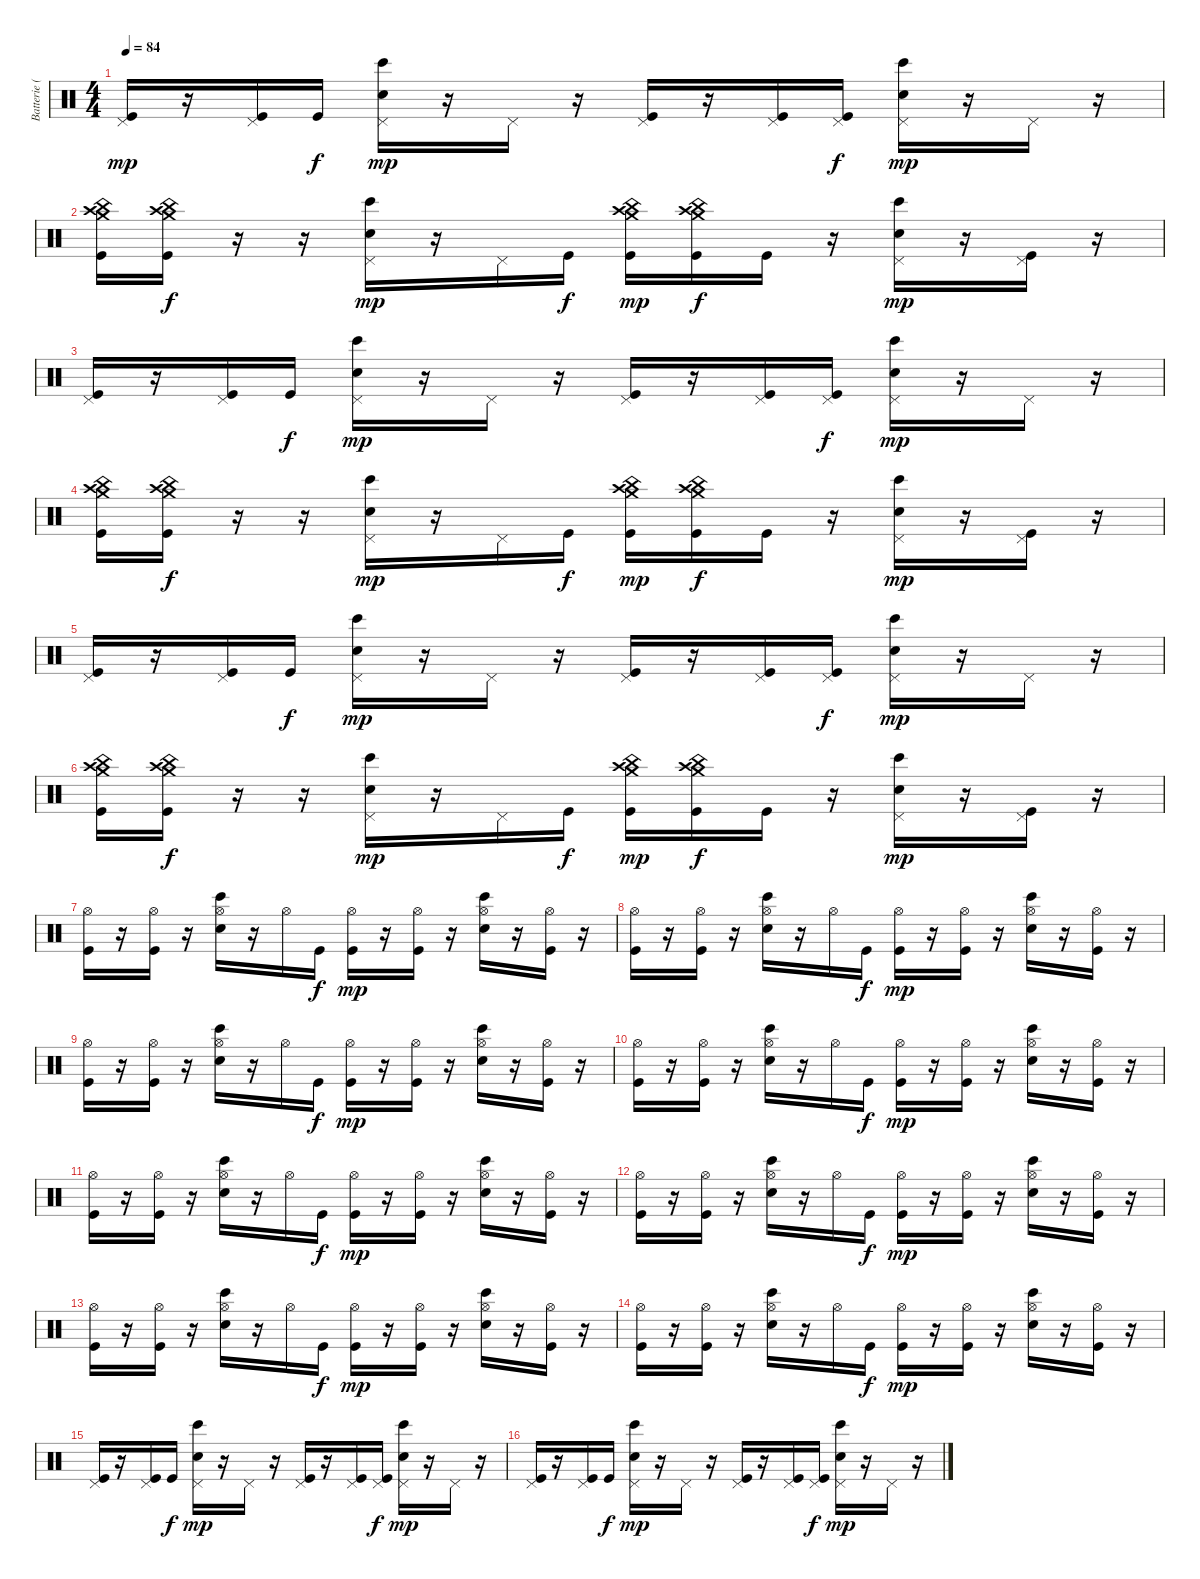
\track ("Batterie (+hand claps)" "Batterie (") {instrument percussion}
\staff {score}
\articulation defaults
\ts (4 4)
\tempo 84
\clef neutral
\ks c
("Pedal Hi-Hat (hit)" "Kick (hit)").16{dy mp} r.16 ("Pedal Hi-Hat (hit)" "Kick (hit)").16 "Kick (hit)".16{dy f} ("Pedal Hi-Hat (hit)" "Hand Clap (hit)" "Bongo High (hit)").16{dy mp} r.16 "Pedal Hi-Hat (hit)".16 r.16 ("Pedal Hi-Hat (hit)" "Kick (hit)").16 r.16 ("Pedal Hi-Hat (hit)" "Kick (hit)").16 ("Pedal Hi-Hat (hit)" "Kick (hit)").16{dy f} ("Pedal Hi-Hat (hit)" "Hand Clap (hit)" "Bongo High (hit)").16{dy mp} r.16 "Pedal Hi-Hat (hit)".16 r.16 |
("Crash high (hit)" "China (hit)" "Crash medium (hit)" "Kick (hit)").16 ("Crash high (hit)" "China (hit)" "Crash medium (hit)" "Kick (hit)").16{dy f} r.16 r.16 ("Pedal Hi-Hat (hit)" "Hand Clap (hit)" "Bongo High (hit)").16{dy mp} r.16 "Pedal Hi-Hat (hit)".16 "Kick (hit)".16{dy f} ("Crash high (hit)" "China (hit)" "Crash medium (hit)" "Kick (hit)").16{dy mp} ("Crash high (hit)" "China (hit)" "Crash medium (hit)" "Kick (hit)").16{dy f} "Kick (hit)".16 r.16 ("Pedal Hi-Hat (hit)" "Hand Clap (hit)" "Bongo High (hit)").16{dy mp} r.16 ("Pedal Hi-Hat (hit)" "Kick (hit)").16 r.16 |
("Pedal Hi-Hat (hit)" "Kick (hit)").16 r.16 ("Pedal Hi-Hat (hit)" "Kick (hit)").16 "Kick (hit)".16{dy f} ("Pedal Hi-Hat (hit)" "Hand Clap (hit)" "Bongo High (hit)").16{dy mp} r.16 "Pedal Hi-Hat (hit)".16 r.16 ("Pedal Hi-Hat (hit)" "Kick (hit)").16 r.16 ("Pedal Hi-Hat (hit)" "Kick (hit)").16 ("Pedal Hi-Hat (hit)" "Kick (hit)").16{dy f} ("Pedal Hi-Hat (hit)" "Hand Clap (hit)" "Bongo High (hit)").16{dy mp} r.16 "Pedal Hi-Hat (hit)".16 r.16 |
("Crash high (hit)" "China (hit)" "Crash medium (hit)" "Kick (hit)").16 ("Crash high (hit)" "China (hit)" "Crash medium (hit)" "Kick (hit)").16{dy f} r.16 r.16 ("Pedal Hi-Hat (hit)" "Hand Clap (hit)" "Bongo High (hit)").16{dy mp} r.16 "Pedal Hi-Hat (hit)".16 "Kick (hit)".16{dy f} ("Crash high (hit)" "China (hit)" "Crash medium (hit)" "Kick (hit)").16{dy mp} ("Crash high (hit)" "China (hit)" "Crash medium (hit)" "Kick (hit)").16{dy f} "Kick (hit)".16 r.16 ("Pedal Hi-Hat (hit)" "Hand Clap (hit)" "Bongo High (hit)").16{dy mp} r.16 ("Pedal Hi-Hat (hit)" "Kick (hit)").16 r.16 |
("Pedal Hi-Hat (hit)" "Kick (hit)").16 r.16 ("Pedal Hi-Hat (hit)" "Kick (hit)").16 "Kick (hit)".16{dy f} ("Pedal Hi-Hat (hit)" "Hand Clap (hit)" "Bongo High (hit)").16{dy mp} r.16 "Pedal Hi-Hat (hit)".16 r.16 ("Pedal Hi-Hat (hit)" "Kick (hit)").16 r.16 ("Pedal Hi-Hat (hit)" "Kick (hit)").16 ("Pedal Hi-Hat (hit)" "Kick (hit)").16{dy f} ("Pedal Hi-Hat (hit)" "Hand Clap (hit)" "Bongo High (hit)").16{dy mp} r.16 "Pedal Hi-Hat (hit)".16 r.16 |
("Crash high (hit)" "China (hit)" "Crash medium (hit)" "Kick (hit)").16 ("Crash high (hit)" "China (hit)" "Crash medium (hit)" "Kick (hit)").16{dy f} r.16 r.16 ("Pedal Hi-Hat (hit)" "Hand Clap (hit)" "Bongo High (hit)").16{dy mp} r.16 "Pedal Hi-Hat (hit)".16 "Kick (hit)".16{dy f} ("Crash high (hit)" "China (hit)" "Crash medium (hit)" "Kick (hit)").16{dy mp} ("Crash high (hit)" "China (hit)" "Crash medium (hit)" "Kick (hit)").16{dy f} "Kick (hit)".16 r.16 ("Pedal Hi-Hat (hit)" "Hand Clap (hit)" "Bongo High (hit)").16{dy mp} r.16 ("Pedal Hi-Hat (hit)" "Kick (hit)").16 r.16 |
("Hi-Hat (open)" "Kick (hit)").16 r.16 ("Hi-Hat (open)" "Kick (hit)").16 r.16 ("Hi-Hat (open)" "Hand Clap (hit)" "Bongo High (hit)").16 r.16 "Hi-Hat (open)".16 "Kick (hit)".16{dy f} ("Hi-Hat (open)" "Kick (hit)").16{dy mp} r.16 ("Hi-Hat (open)" "Kick (hit)").16 r.16 ("Hi-Hat (open)" "Hand Clap (hit)" "Bongo High (hit)").16 r.16 ("Hi-Hat (open)" "Kick (hit)").16 r.16 |
("Hi-Hat (open)" "Kick (hit)").16 r.16 ("Hi-Hat (open)" "Kick (hit)").16 r.16 ("Hi-Hat (open)" "Hand Clap (hit)" "Bongo High (hit)").16 r.16 "Hi-Hat (open)".16 "Kick (hit)".16{dy f} ("Hi-Hat (open)" "Kick (hit)").16{dy mp} r.16 ("Hi-Hat (open)" "Kick (hit)").16 r.16 ("Hi-Hat (open)" "Hand Clap (hit)" "Bongo High (hit)").16 r.16 ("Hi-Hat (open)" "Kick (hit)").16 r.16 |
("Hi-Hat (open)" "Kick (hit)").16 r.16 ("Hi-Hat (open)" "Kick (hit)").16 r.16 ("Hi-Hat (open)" "Hand Clap (hit)" "Bongo High (hit)").16 r.16 "Hi-Hat (open)".16 "Kick (hit)".16{dy f} ("Hi-Hat (open)" "Kick (hit)").16{dy mp} r.16 ("Hi-Hat (open)" "Kick (hit)").16 r.16 ("Hi-Hat (open)" "Hand Clap (hit)" "Bongo High (hit)").16 r.16 ("Hi-Hat (open)" "Kick (hit)").16 r.16 |
("Hi-Hat (open)" "Kick (hit)").16 r.16 ("Hi-Hat (open)" "Kick (hit)").16 r.16 ("Hi-Hat (open)" "Hand Clap (hit)" "Bongo High (hit)").16 r.16 "Hi-Hat (open)".16 "Kick (hit)".16{dy f} ("Hi-Hat (open)" "Kick (hit)").16{dy mp} r.16 ("Hi-Hat (open)" "Kick (hit)").16 r.16 ("Hi-Hat (open)" "Hand Clap (hit)" "Bongo High (hit)").16 r.16 ("Hi-Hat (open)" "Kick (hit)").16 r.16 |
("Hi-Hat (open)" "Kick (hit)").16 r.16 ("Hi-Hat (open)" "Kick (hit)").16 r.16 ("Hi-Hat (open)" "Hand Clap (hit)" "Bongo High (hit)").16 r.16 "Hi-Hat (open)".16 "Kick (hit)".16{dy f} ("Hi-Hat (open)" "Kick (hit)").16{dy mp} r.16 ("Hi-Hat (open)" "Kick (hit)").16 r.16 ("Hi-Hat (open)" "Hand Clap (hit)" "Bongo High (hit)").16 r.16 ("Hi-Hat (open)" "Kick (hit)").16 r.16 |
("Hi-Hat (open)" "Kick (hit)").16 r.16 ("Hi-Hat (open)" "Kick (hit)").16 r.16 ("Hi-Hat (open)" "Hand Clap (hit)" "Bongo High (hit)").16 r.16 "Hi-Hat (open)".16 "Kick (hit)".16{dy f} ("Hi-Hat (open)" "Kick (hit)").16{dy mp} r.16 ("Hi-Hat (open)" "Kick (hit)").16 r.16 ("Hi-Hat (open)" "Hand Clap (hit)" "Bongo High (hit)").16 r.16 ("Hi-Hat (open)" "Kick (hit)").16 r.16 |
("Hi-Hat (open)" "Kick (hit)").16 r.16 ("Hi-Hat (open)" "Kick (hit)").16 r.16 ("Hi-Hat (open)" "Hand Clap (hit)" "Bongo High (hit)").16 r.16 "Hi-Hat (open)".16 "Kick (hit)".16{dy f} ("Hi-Hat (open)" "Kick (hit)").16{dy mp} r.16 ("Hi-Hat (open)" "Kick (hit)").16 r.16 ("Hi-Hat (open)" "Hand Clap (hit)" "Bongo High (hit)").16 r.16 ("Hi-Hat (open)" "Kick (hit)").16 r.16 |
("Hi-Hat (open)" "Kick (hit)").16 r.16 ("Hi-Hat (open)" "Kick (hit)").16 r.16 ("Hi-Hat (open)" "Hand Clap (hit)" "Bongo High (hit)").16 r.16 "Hi-Hat (open)".16 "Kick (hit)".16{dy f} ("Hi-Hat (open)" "Kick (hit)").16{dy mp} r.16 ("Hi-Hat (open)" "Kick (hit)").16 r.16 ("Hi-Hat (open)" "Hand Clap (hit)" "Bongo High (hit)").16 r.16 ("Hi-Hat (open)" "Kick (hit)").16 r.16 |
("Pedal Hi-Hat (hit)" "Kick (hit)").16 r.16 ("Pedal Hi-Hat (hit)" "Kick (hit)").16 "Kick (hit)".16{dy f} ("Pedal Hi-Hat (hit)" "Hand Clap (hit)" "Bongo High (hit)").16{dy mp} r.16 "Pedal Hi-Hat (hit)".16 r.16 ("Pedal Hi-Hat (hit)" "Kick (hit)").16 r.16 ("Pedal Hi-Hat (hit)" "Kick (hit)").16 ("Pedal Hi-Hat (hit)" "Kick (hit)").16{dy f} ("Pedal Hi-Hat (hit)" "Hand Clap (hit)" "Bongo High (hit)").16{dy mp} r.16 "Pedal Hi-Hat (hit)".16 r.16 |
("Pedal Hi-Hat (hit)" "Kick (hit)").16 r.16 ("Pedal Hi-Hat (hit)" "Kick (hit)").16 "Kick (hit)".16{dy f} ("Pedal Hi-Hat (hit)" "Hand Clap (hit)" "Bongo High (hit)").16{dy mp} r.16 "Pedal Hi-Hat (hit)".16 r.16 ("Pedal Hi-Hat (hit)" "Kick (hit)").16 r.16 ("Pedal Hi-Hat (hit)" "Kick (hit)").16 ("Pedal Hi-Hat (hit)" "Kick (hit)").16{dy f} ("Pedal Hi-Hat (hit)" "Hand Clap (hit)" "Bongo High (hit)").16{dy mp} r.16 "Pedal Hi-Hat (hit)".16 r.16
